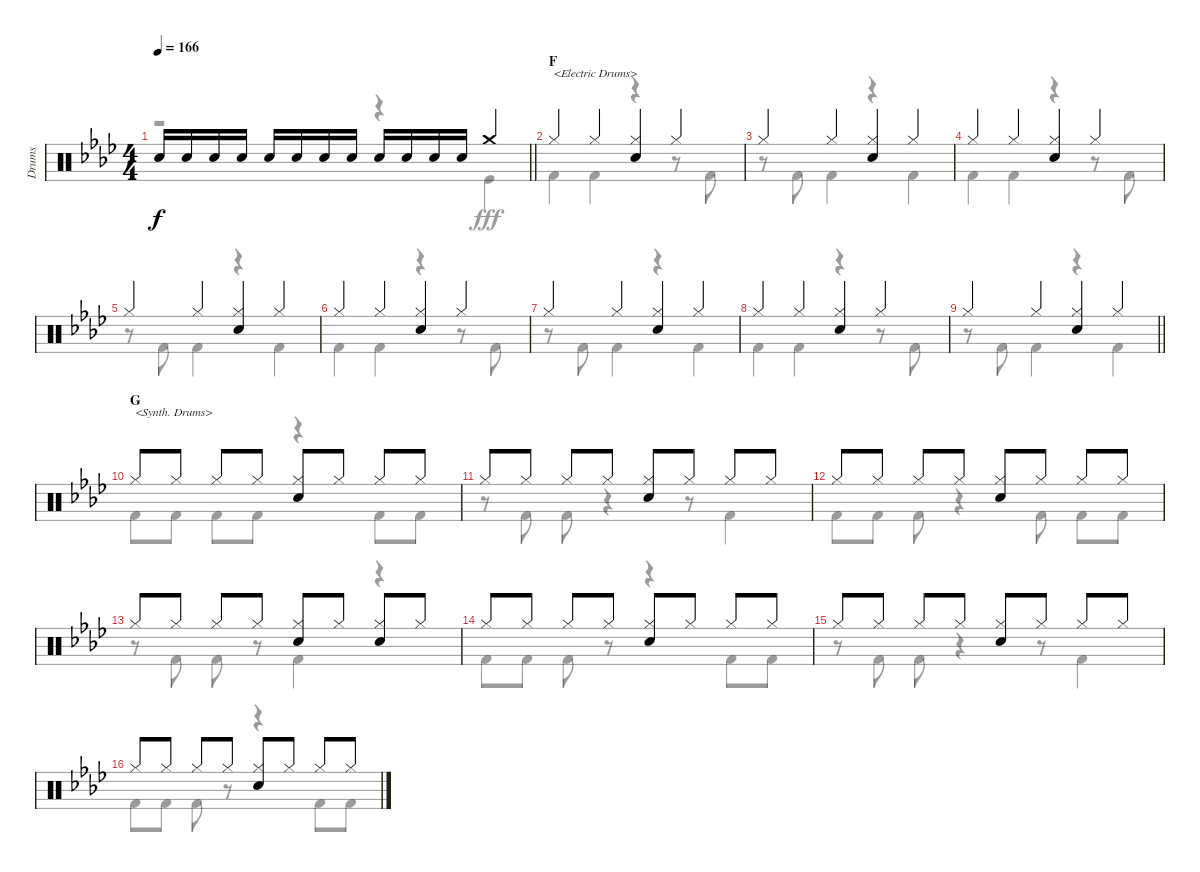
\track ("Drums" "Drums") {instrument percussion}
\staff {score}
\articulation defaults
\voice
\ts (4 4)
\tempo 166
\clef neutral
\barLineRight lightlight
\ks ab "Snare (hit) 2".16{dy f} "Snare (hit) 2".16 "Snare (hit) 2".16 "Snare (hit) 2".16 "Snare (hit) 2".16 "Snare (hit) 2".16 "Snare (hit) 2".16 "Snare (hit) 2".16 "Snare (hit) 2".16 "Snare (hit) 2".16 "Snare (hit) 2".16 "Snare (hit) 2".16 "Crash medium (hit)".4
|
\section ("" "F")
"Hi-Hat (closed)".4{txt "<Electric Drums>"} "Hi-Hat (closed)".4 ("Hi-Hat (closed)" "Snare (hit) 2").4 "Hi-Hat (closed)".4 |
"Hi-Hat (closed)".4 "Hi-Hat (closed)".4 ("Hi-Hat (closed)" "Snare (hit) 2").4 "Hi-Hat (closed)".4 |
"Hi-Hat (closed)".4 "Hi-Hat (closed)".4 ("Hi-Hat (closed)" "Snare (hit) 2").4 "Hi-Hat (closed)".4 |
"Hi-Hat (closed)".4 "Hi-Hat (closed)".4 ("Hi-Hat (closed)" "Snare (hit) 2").4 "Hi-Hat (closed)".4 |
"Hi-Hat (closed)".4 "Hi-Hat (closed)".4 ("Hi-Hat (closed)" "Snare (hit) 2").4 "Hi-Hat (closed)".4 |
"Hi-Hat (closed)".4 "Hi-Hat (closed)".4 ("Hi-Hat (closed)" "Snare (hit) 2").4 "Hi-Hat (closed)".4 |
"Hi-Hat (closed)".4 "Hi-Hat (closed)".4 ("Hi-Hat (closed)" "Snare (hit) 2").4 "Hi-Hat (closed)".4 |
\barLineRight lightlight "Hi-Hat (closed)".4 "Hi-Hat (closed)".4
("Hi-Hat (closed)" "Snare (hit) 2").4 "Hi-Hat (closed)".4 |
\section ("" "G")
"Hi-Hat (closed)".8{txt "<Synth. Drums>"} "Hi-Hat (closed)".8 "Hi-Hat (closed)".8 "Hi-Hat (closed)".8 ("Hi-Hat (closed)" "Snare (hit) 2").8 "Hi-Hat (closed)".8 "Hi-Hat (closed)".8 "Hi-Hat (closed)".8 |
"Hi-Hat (closed)".8 "Hi-Hat (closed)".8 "Hi-Hat (closed)".8 "Hi-Hat (closed)".8 ("Hi-Hat (closed)" "Snare (hit) 2").8 "Hi-Hat (closed)".8 "Hi-Hat (closed)".8 "Hi-Hat (closed)".8 |
"Hi-Hat (closed)".8 "Hi-Hat (closed)".8 "Hi-Hat (closed)".8 "Hi-Hat (closed)".8 ("Hi-Hat (closed)" "Snare (hit) 2").8 "Hi-Hat (closed)".8 "Hi-Hat (closed)".8 "Hi-Hat (closed)".8 |
"Hi-Hat (closed)".8 "Hi-Hat (closed)".8 "Hi-Hat (closed)".8 "Hi-Hat (closed)".8 ("Hi-Hat (closed)" "Snare (hit) 2").8 "Hi-Hat (closed)".8 ("Hi-Hat (closed)" "Snare (hit) 2").8 "Hi-Hat (closed)".8 |
"Hi-Hat (closed)".8 "Hi-Hat (closed)".8 "Hi-Hat (closed)".8 "Hi-Hat (closed)".8 ("Hi-Hat (closed)" "Snare (hit) 2").8 "Hi-Hat (closed)".8 "Hi-Hat (closed)".8 "Hi-Hat (closed)".8 |
"Hi-Hat (closed)".8 "Hi-Hat (closed)".8 "Hi-Hat (closed)".8 "Hi-Hat (closed)".8 ("Hi-Hat (closed)" "Snare (hit) 2").8 "Hi-Hat (closed)".8 "Hi-Hat (closed)".8 "Hi-Hat (closed)".8 |
"Hi-Hat (closed)".8 "Hi-Hat (closed)".8 "Hi-Hat (closed)".8 "Hi-Hat (closed)".8 ("Hi-Hat (closed)" "Snare (hit) 2").8 "Hi-Hat (closed)".8 "Hi-Hat (closed)".8 "Hi-Hat (closed)".8
\voice
\clef neutral
\ottava regular
\simile none
\barLineRight lightlight
\ks ab
r.2{dy fff} r.4 "Kick (hit)".4 |
"Kick (hit) 2".4 "Kick (hit) 2".4 r.4 r.8 "Kick (hit) 2".8 |
r.8 "Kick (hit) 2".8 "Kick (hit) 2".4 r.4 "Kick (hit) 2".4 |
"Kick (hit) 2".4 "Kick (hit) 2".4 r.4 r.8 "Kick (hit) 2".8 |
r.8 "Kick (hit) 2".8 "Kick (hit) 2".4 r.4 "Kick (hit) 2".4 |
"Kick (hit) 2".4 "Kick (hit) 2".4 r.4 r.8 "Kick (hit) 2".8 |
r.8 "Kick (hit) 2".8 "Kick (hit) 2".4 r.4 "Kick (hit) 2".4 |
"Kick (hit) 2".4 "Kick (hit) 2".4 r.4 r.8 "Kick (hit) 2".8 |
\barLineRight lightlight
r.8 "Kick (hit) 2".8 "Kick (hit) 2".4 r.4 "Kick (hit) 2".4 |
"Kick (hit) 2".8 "Kick (hit) 2".8 "Kick (hit) 2".8 "Kick (hit) 2".8 r.4 "Kick (hit) 2".8 "Kick (hit) 2".8 |
r.8 "Kick (hit) 2".8 "Kick (hit) 2".8 r.4 r.8 "Kick (hit) 2".4 |
"Kick (hit) 2".8 "Kick (hit) 2".8 "Kick (hit) 2".8 r.4 "Kick (hit) 2".8 "Kick (hit) 2".8 "Kick (hit) 2".8 |
r.8 "Kick (hit) 2".8 "Kick (hit) 2".8 r.8 "Kick (hit) 2".4 r.4 |
"Kick (hit) 2".8 "Kick (hit) 2".8 "Kick (hit) 2".8 r.8 r.4 "Kick (hit) 2".8 "Kick (hit) 2".8 |
r.8 "Kick (hit) 2".8 "Kick (hit) 2".8 r.4 r.8 "Kick (hit) 2".4 |
"Kick (hit) 2".8 "Kick (hit) 2".8 "Kick (hit) 2".8 r.8 r.4 "Kick (hit) 2".8 "Kick (hit) 2".8
